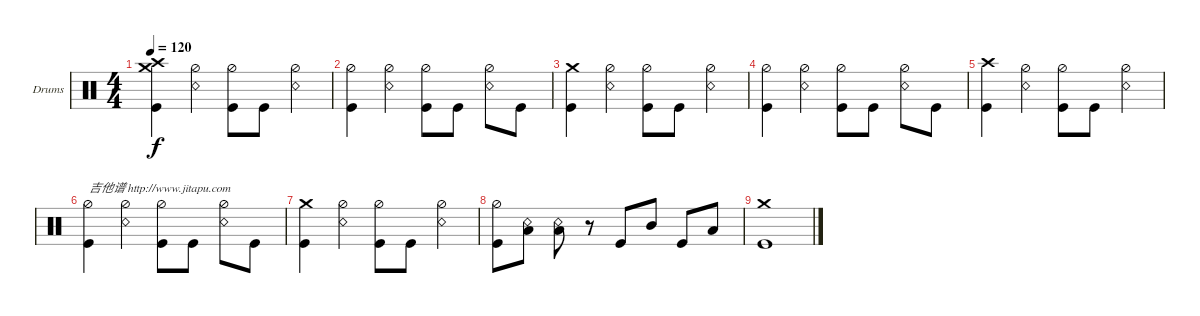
\defaultSystemsLayout 4
\bracketExtendMode groupsimilarinstruments
\firstSystemTrackNameOrientation horizontal
\otherSystemsTrackNameOrientation horizontal
\track ("Drumkit" "Drums") {instrument percussion}
\staff {score}
\articulation defaults
\ts (4 4)
\tempo 120
\clef neutral
\ks c
("Kick (hit)" "Crash high (hit)" "Crash medium (hit)").4{dy f} ("Snare (rim shot)" "Hi-Hat (half)").4 ("Kick (hit)" "Hi-Hat (half)").8 "Kick (hit)".8 ("Snare (rim shot)" "Hi-Hat (half)").4 |
("Kick (hit)" "Hi-Hat (half)").4 ("Snare (rim shot)" "Hi-Hat (half)").4 ("Kick (hit)" "Hi-Hat (half)").8 "Kick (hit)".8 ("Snare (rim shot)" "Hi-Hat (half)").8 "Kick (hit)".8 |
("Kick (hit)" "Crash medium (hit)").4 ("Snare (rim shot)" "Hi-Hat (half)").4 ("Kick (hit)" "Hi-Hat (half)").8 "Kick (hit)".8 ("Snare (rim shot)" "Hi-Hat (half)").4 |
("Kick (hit)" "Hi-Hat (half)").4 ("Snare (rim shot)" "Hi-Hat (half)").4 ("Kick (hit)" "Hi-Hat (half)").8 "Kick (hit)".8 ("Snare (rim shot)" "Hi-Hat (half)").8 "Kick (hit)".8 |
("Kick (hit)" "Crash high (hit)").4 ("Snare (rim shot)" "Hi-Hat (half)").4 ("Kick (hit)" "Hi-Hat (half)").8 "Kick (hit)".8 ("Snare (rim shot)" "Hi-Hat (half)").4 |
("Kick (hit)" "Hi-Hat (half)").4{txt "吉他谱 http://www.jitapu.com"} ("Snare (rim shot)" "Hi-Hat (half)").4 ("Kick (hit)" "Hi-Hat (half)").8 "Kick (hit)".8 ("Snare (rim shot)" "Hi-Hat (half)").8 "Kick (hit)".8 |
("Kick (hit)" "Crash medium (hit)").4 ("Snare (rim shot)" "Hi-Hat (half)").4 ("Kick (hit)" "Hi-Hat (half)").8 "Kick (hit)".8 ("Snare (rim shot)" "Hi-Hat (half)").4 |
("Kick (hit)" "Hi-Hat (half)").8 ("Snare (rim shot)" "Low Tom (hit)").8 ("Snare (rim shot)" "Low Tom (hit)").8 r.8 "Kick (hit)".8 "Mid Tom (hit)".8 "Kick (hit)".8 "Low Tom (hit)".8 |
("Kick (hit)" "Crash medium (hit)").1
